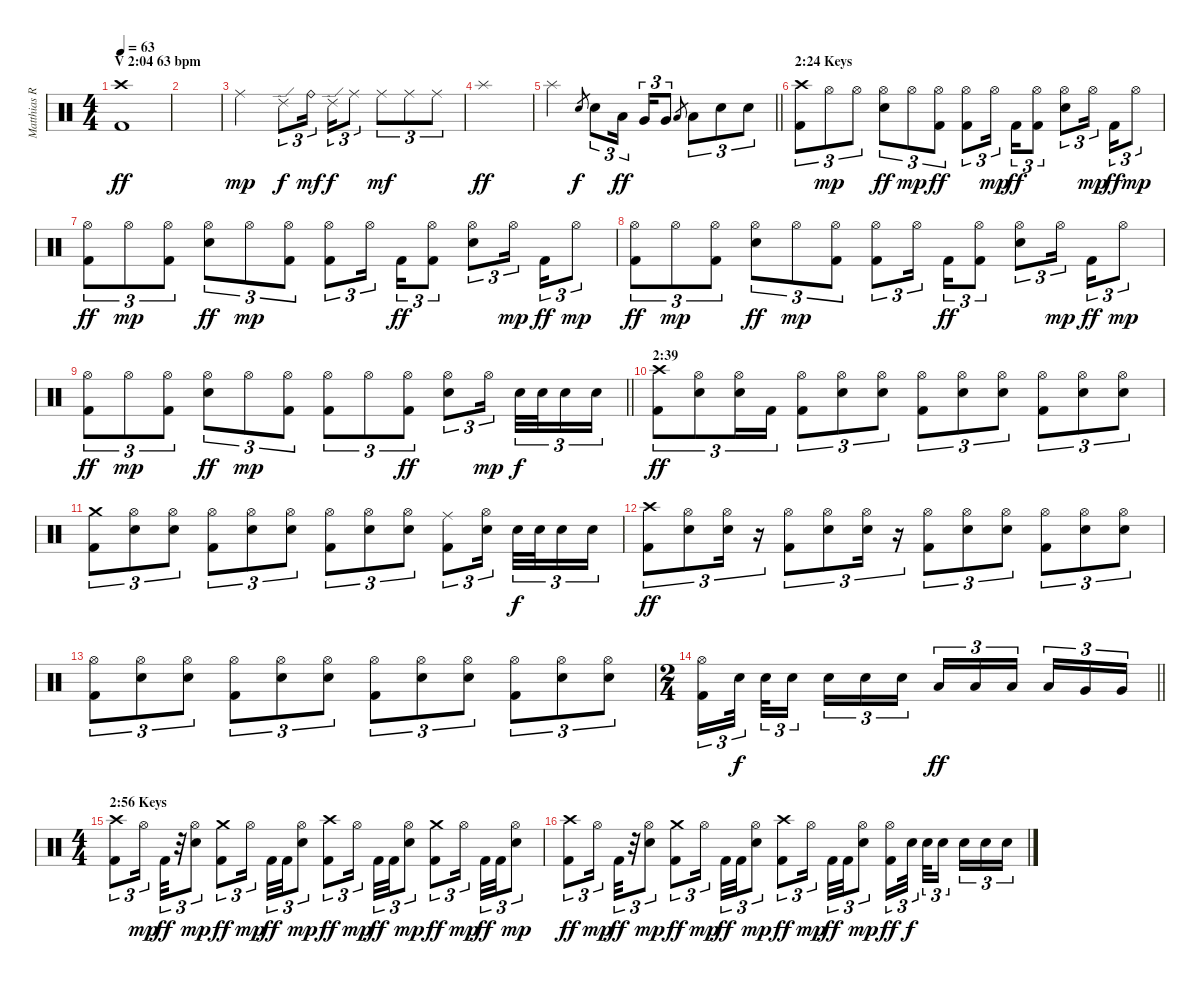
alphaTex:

\track ("Matthias R." "Matthias R") {instrument percussion}
\staff {score}
\articulation defaults
\ts (4 4)
\section ("" "V 2:04 63 bpm")
\tempo 63
\clef neutral
\ks c
("Crash high (hit)" "Kick (hit) 2").1{dy ff} |
|
"Ride (middle)".2{dy mp} "Ride (edge) 2".8{tu (3 2) dy f} "Ride (bell)".16{tu (3 2) dy mf beam splitsecondary} "Ride (edge) 2".16{tu (3 2) dy f} "Ride (middle)".8{tu (3 2)} "Ride (middle)".8{tu (3 2) dy mf} "Ride (middle)".8{tu (3 2)} "Ride (middle)".8{tu (3 2)} |
"Splash (hit)".1{dy ff} |
\barLineRight lightlight "Splash (hit)".2 "Electric Snare (hit)".8{gr dy f} "Electric Snare (hit)".8{tu (3 2)} "Low Tom (hit)".16{tu (3 2) dy ff beam splitsecondary} "Very Low Tom (hit)".16{tu (3 2)} "Very Low Tom (hit)".8{tu (3 2)} "Low Tom (hit)".8{gr} "Low Tom (hit)".8{tu (3 2)} "Electric Snare (hit)".8{tu (3 2)} "Electric Snare (hit)".8{tu (3 2)}
|
\section ("" "2:24 Keys")
("Crash high (hit)" "Kick (hit) 2").8{tu (3 2)} "Hi-Hat (open)".8{tu (3 2) dy mp} "Hi-Hat (open)".8{tu (3 2)} ("Hi-Hat (open)" "Electric Snare (hit)").8{tu (3 2) dy ff} "Hi-Hat (open)".8{tu (3 2) dy mp} ("Hi-Hat (open)" "Kick (hit) 2").8{tu (3 2) dy ff} ("Hi-Hat (open)" "Kick (hit) 2").8{tu (3 2)} "Hi-Hat (open)".16{tu (3 2) dy mp beam splitsecondary} "Kick (hit) 2".16{tu (3 2) dy ff} ("Hi-Hat (open)" "Kick (hit) 2").8{tu (3 2)} ("Hi-Hat (open)" "Electric Snare (hit)").8{tu (3 2)} "Hi-Hat (open)".16{tu (3 2) dy mp beam splitsecondary} "Kick (hit) 2".16{tu (3 2) dy ff} "Hi-Hat (open)".8{tu (3 2) dy mp} |
("Hi-Hat (open)" "Kick (hit) 2").8{tu (3 2) dy ff} "Hi-Hat (open)".8{tu (3 2) dy mp} ("Hi-Hat (open)" "Kick (hit) 2").8{tu (3 2)} ("Hi-Hat (open)" "Electric Snare (hit)").8{tu (3 2) dy ff} "Hi-Hat (open)".8{tu (3 2) dy mp} ("Hi-Hat (open)" "Kick (hit) 2").8{tu (3 2)} ("Hi-Hat (open)" "Kick (hit) 2").8{tu (3 2)} "Hi-Hat (open)".16{tu (3 2) beam splitsecondary} "Kick (hit) 2".16{tu (3 2) dy ff} ("Hi-Hat (open)" "Kick (hit) 2").8{tu (3 2)} ("Hi-Hat (open)" "Electric Snare (hit)").8{tu (3 2)} "Hi-Hat (open)".16{tu (3 2) dy mp beam splitsecondary} "Kick (hit) 2".16{tu (3 2) dy ff} "Hi-Hat (open)".8{tu (3 2) dy mp} |
("Hi-Hat (open)" "Kick (hit) 2").8{tu (3 2) dy ff} "Hi-Hat (open)".8{tu (3 2) dy mp} ("Hi-Hat (open)" "Kick (hit) 2").8{tu (3 2)} ("Hi-Hat (open)" "Electric Snare (hit)").8{tu (3 2) dy ff} "Hi-Hat (open)".8{tu (3 2) dy mp} ("Hi-Hat (open)" "Kick (hit) 2").8{tu (3 2)} ("Hi-Hat (open)" "Kick (hit) 2").8{tu (3 2)} "Hi-Hat (open)".16{tu (3 2) beam splitsecondary} "Kick (hit) 2".16{tu (3 2) dy ff} ("Hi-Hat (open)" "Kick (hit) 2").8{tu (3 2)} ("Hi-Hat (open)" "Electric Snare (hit)").8{tu (3 2)} "Hi-Hat (open)".16{tu (3 2) dy mp beam splitsecondary} "Kick (hit) 2".16{tu (3 2) dy ff} "Hi-Hat (open)".8{tu (3 2) dy mp} |
\barLineRight lightlight
("Hi-Hat (open)" "Kick (hit) 2").8{tu (3 2) dy ff} "Hi-Hat (open)".8{tu (3 2) dy mp} ("Hi-Hat (open)" "Kick (hit) 2").8{tu (3 2)} ("Hi-Hat (open)" "Electric Snare (hit)").8{tu (3 2) dy ff} "Hi-Hat (open)".8{tu (3 2) dy mp} ("Hi-Hat (open)" "Kick (hit) 2").8{tu (3 2)} ("Hi-Hat (open)" "Kick (hit) 2").8{tu (3 2)} "Hi-Hat (open)".8{tu (3 2)} ("Hi-Hat (open)" "Kick (hit) 2").8{tu (3 2) dy ff} ("Hi-Hat (open)" "Electric Snare (hit)").8{tu (3 2)} "Hi-Hat (open)".16{tu (3 2) dy mp beam splitsecondary} "Electric Snare (hit)".32{tu (3 2) dy f} "Electric Snare (hit)".32{tu (3 2)} "Electric Snare (hit)".16{tu (3 2)} "Electric Snare (hit)".16{tu (3 2)} |
\section ("" "2:39")
("Crash high (hit)" "Kick (hit) 2").8{tu (3 2) dy ff} ("Hi-Hat (open)" "Electric Snare (hit)").8{tu (3 2)} ("Hi-Hat (open)" "Electric Snare (hit)").16{tu (3 2)} "Kick (hit) 2".16{tu (3 2)} ("Hi-Hat (open)" "Kick (hit) 2").8{tu (3 2)} ("Hi-Hat (open)" "Electric Snare (hit)").8{tu (3 2)} ("Hi-Hat (open)" "Electric Snare (hit)").8{tu (3 2)} ("Hi-Hat (open)" "Kick (hit) 2").8{tu (3 2)} ("Hi-Hat (open)" "Electric Snare (hit)").8{tu (3 2)} ("Hi-Hat (open)" "Electric Snare (hit)").8{tu (3 2)} ("Hi-Hat (open)" "Kick (hit) 2").8{tu (3 2)} ("Hi-Hat (open)" "Electric Snare (hit)").8{tu (3 2)} ("Hi-Hat (open)" "Electric Snare (hit)").8{tu (3 2)} |
("Crash medium (hit)" "Kick (hit) 2").8{tu (3 2)} ("Hi-Hat (open)" "Electric Snare (hit)").8{tu (3 2)} ("Hi-Hat (open)" "Electric Snare (hit)").8{tu (3 2)} ("Hi-Hat (open)" "Kick (hit) 2").8{tu (3 2)} ("Hi-Hat (open)" "Electric Snare (hit)").8{tu (3 2)} ("Hi-Hat (open)" "Electric Snare (hit)").8{tu (3 2)} ("Hi-Hat (open)" "Kick (hit) 2").8{tu (3 2)} ("Hi-Hat (open)" "Electric Snare (hit)").8{tu (3 2)} ("Hi-Hat (open)" "Electric Snare (hit)").8{tu (3 2)} ("Ride (middle)" "Kick (hit) 2").8{tu (3 2)} ("Hi-Hat (open)" "Electric Snare (hit)").16{tu (3 2) beam splitsecondary} "Electric Snare (hit)".32{tu (3 2) dy f} "Electric Snare (hit)".32{tu (3 2)} "Electric Snare (hit)".16{tu (3 2)} "Electric Snare (hit)".16{tu (3 2)} |
("Crash high (hit)" "Kick (hit) 2").8{tu (3 2) dy ff} ("Hi-Hat (open)" "Electric Snare (hit)").8{tu (3 2)} ("Hi-Hat (open)" "Electric Snare (hit)").16{tu (3 2)} r.16{tu (3 2)} ("Hi-Hat (open)" "Kick (hit) 2").8{tu (3 2)} ("Hi-Hat (open)" "Electric Snare (hit)").8{tu (3 2)} ("Hi-Hat (open)" "Electric Snare (hit)").16{tu (3 2)} r.16{tu (3 2)} ("Hi-Hat (open)" "Kick (hit) 2").8{tu (3 2)} ("Hi-Hat (open)" "Electric Snare (hit)").8{tu (3 2)} ("Hi-Hat (open)" "Electric Snare (hit)").8{tu (3 2)} ("Hi-Hat (open)" "Kick (hit) 2").8{tu (3 2)} ("Hi-Hat (open)" "Electric Snare (hit)").8{tu (3 2)} ("Hi-Hat (open)" "Electric Snare (hit)").8{tu (3 2)} |
("Hi-Hat (open)" "Kick (hit) 2").8{tu (3 2)} ("Hi-Hat (open)" "Electric Snare (hit)").8{tu (3 2)} ("Hi-Hat (open)" "Electric Snare (hit)").8{tu (3 2)} ("Hi-Hat (open)" "Kick (hit) 2").8{tu (3 2)} ("Hi-Hat (open)" "Electric Snare (hit)").8{tu (3 2)} ("Hi-Hat (open)" "Electric Snare (hit)").8{tu (3 2)} ("Hi-Hat (open)" "Kick (hit) 2").8{tu (3 2)} ("Hi-Hat (open)" "Electric Snare (hit)").8{tu (3 2)} ("Hi-Hat (open)" "Electric Snare (hit)").8{tu (3 2)} ("Hi-Hat (open)" "Kick (hit) 2").8{tu (3 2)} ("Hi-Hat (open)" "Electric Snare (hit)").8{tu (3 2)} ("Hi-Hat (open)" "Electric Snare (hit)").8{tu (3 2)} |
\ts (2 4)
\barLineRight lightlight
("Hi-Hat (open)" "Kick (hit) 2").16{tu (3 2)} "Electric Snare (hit)".32{tu (3 2) dy f beam splitsecondary} "Electric Snare (hit)".32{tu (3 2)} "Electric Snare (hit)".16{tu (3 2) beam splitsecondary} "Electric Snare (hit)".16{tu (3 2)} "Electric Snare (hit)".16{tu (3 2)} "Electric Snare (hit)".16{tu (3 2)} "Low Tom (hit)".16{tu (3 2) dy ff} "Low Tom (hit)".16{tu (3 2)} "Low Tom (hit)".16{tu (3 2) beam splitsecondary} "Low Tom (hit)".16{tu (3 2)} "Very Low Tom (hit)".16{tu (3 2)} "Very Low Tom (hit)".16{tu (3 2)} |
\ts (4 4)
\section ("" "2:56 Keys")
("Crash high (hit)" "Kick (hit) 2").8{tu (3 2)} "Hi-Hat (open)".16{tu (3 2) dy mp} "Kick (hit) 2".32{tu (3 2) dy ff} r.32{tu (3 2)} ("Hi-Hat (open)" "Electric Snare (hit)").8{tu (3 2) dy mp} ("Crash medium (hit)" "Kick (hit) 2").8{tu (3 2) dy ff} "Hi-Hat (open)".16{tu (3 2) dy mp beam splitsecondary} "Kick (hit) 2".32{tu (3 2) dy ff} "Kick (hit) 2".32{tu (3 2)} ("Hi-Hat (open)" "Electric Snare (hit)").8{tu (3 2) dy mp} ("Crash high (hit)" "Kick (hit) 2").8{tu (3 2) dy ff} "Hi-Hat (open)".16{tu (3 2) dy mp beam splitsecondary} "Kick (hit) 2".32{tu (3 2) dy ff} "Kick (hit) 2".32{tu (3 2)} ("Hi-Hat (open)" "Electric Snare (hit)").8{tu (3 2) dy mp} ("Crash medium (hit)" "Kick (hit) 2").8{tu (3 2) dy ff} "Hi-Hat (open)".16{tu (3 2) dy mp beam splitsecondary} "Kick (hit) 2".32{tu (3 2) dy ff} "Kick (hit) 2".32{tu (3 2)} ("Hi-Hat (open)" "Electric Snare (hit)").8{tu (3 2) dy mp} |
("Crash high (hit)" "Kick (hit) 2").8{tu (3 2) dy ff} "Hi-Hat (open)".16{tu (3 2) dy mp} "Kick (hit) 2".32{tu (3 2) dy ff} r.32{tu (3 2)} ("Hi-Hat (open)" "Electric Snare (hit)").8{tu (3 2) dy mp} ("Crash medium (hit)" "Kick (hit) 2").8{tu (3 2) dy ff} "Hi-Hat (open)".16{tu (3 2) dy mp beam splitsecondary} "Kick (hit) 2".32{tu (3 2) dy ff} "Kick (hit) 2".32{tu (3 2)} ("Hi-Hat (open)" "Electric Snare (hit)").8{tu (3 2) dy mp} ("Crash high (hit)" "Kick (hit) 2").8{tu (3 2) dy ff} "Hi-Hat (open)".16{tu (3 2) dy mp beam splitsecondary} "Kick (hit) 2".32{tu (3 2) dy ff} "Kick (hit) 2".32{tu (3 2)} ("Hi-Hat (open)" "Electric Snare (hit)").8{tu (3 2) dy mp} ("Hi-Hat (open)" "Kick (hit) 2").16{tu (3 2) dy ff} "Electric Snare (hit)".32{tu (3 2) dy f beam splitsecondary} "Electric Snare (hit)".32{tu (3 2)} "Electric Snare (hit)".16{tu (3 2) beam splitsecondary} "Electric Snare (hit)".16{tu (3 2)} "Electric Snare (hit)".16{tu (3 2)} "Electric Snare (hit)".16{tu (3 2)}
